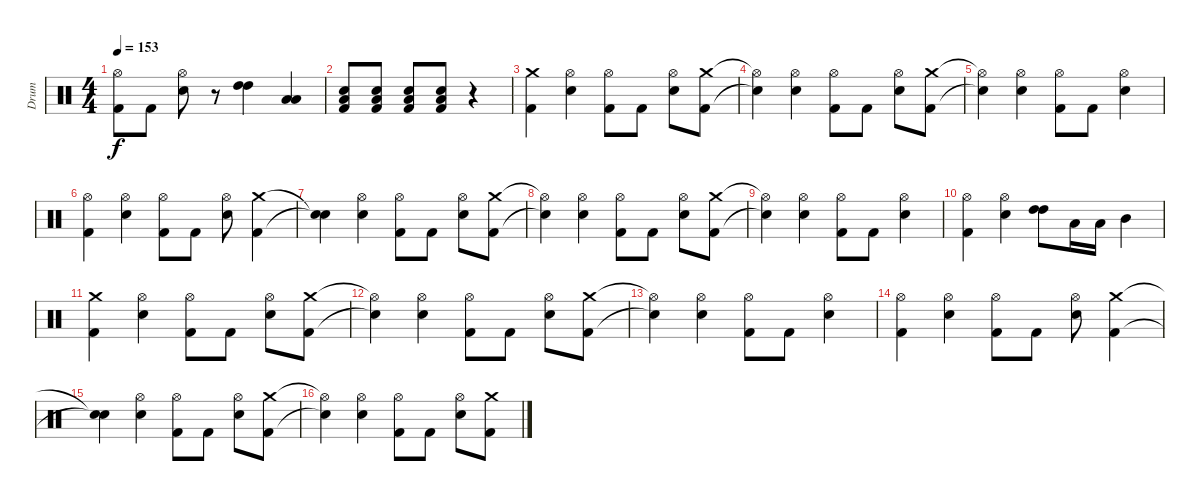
\track ("Drum" "Drum") {instrument percussion}
\staff {score}
\articulation defaults
\ts (4 4)
\tempo 153
\clef neutral
\ks c
("Hi-Hat (open)" "Kick (hit) 2").8{dy f} "Kick (hit) 2".8 ("Hi-Hat (open)" "Snare (hit) 2").8 r.8 ("High Tom (hit)" "High Tom (hit)").4{bd 480} ("Low Tom (hit)" "Low Tom (hit)").4{bd 480} |
("Snare (hit) 2" "Kick (hit) 2" "Low Floor Tom (hit)").8 ("Snare (hit) 2" "Kick (hit) 2" "Low Floor Tom (hit)").8 ("Snare (hit) 2" "Kick (hit) 2" "Low Floor Tom (hit)").8 ("Snare (hit) 2" "Kick (hit) 2" "Low Floor Tom (hit)").8 r.4 |
("Crash medium (hit)" "Kick (hit) 2").4 ("Hi-Hat (open)" "Snare (hit) 2").4 ("Hi-Hat (open)" "Kick (hit) 2").8 "Kick (hit) 2".8 ("Hi-Hat (open)" "Snare (hit) 2").8 ("Crash medium (hit)" "Kick (hit) 2").8 |
("Hi-Hat (open)"{t} "Snare (hit)"{t}).4 ("Hi-Hat (open)" "Snare (hit) 2").4 ("Hi-Hat (open)" "Kick (hit) 2").8 "Kick (hit) 2".8 ("Hi-Hat (open)" "Snare (hit) 2").8 ("Crash medium (hit)" "Kick (hit) 2").8 |
("Hi-Hat (open)"{t} "Snare (hit)"{t}).4 ("Hi-Hat (open)" "Snare (hit) 2").4 ("Hi-Hat (open)" "Kick (hit) 2").8 "Kick (hit) 2".8 ("Hi-Hat (open)" "Snare (hit) 2").4 |
("Hi-Hat (open)" "Kick (hit) 2").4 ("Hi-Hat (open)" "Snare (hit) 2").4 ("Hi-Hat (open)" "Kick (hit) 2").8 "Kick (hit) 2".8 ("Hi-Hat (open)" "Snare (hit) 2").8 ("Crash medium (hit)" "Kick (hit) 2").4 |
("Snare (hit)"{t} "Snare (hit)"{t}).4 ("Hi-Hat (open)" "Snare (hit) 2").4 ("Hi-Hat (open)" "Kick (hit) 2").8 "Kick (hit) 2".8 ("Hi-Hat (open)" "Snare (hit) 2").8 ("Crash medium (hit)" "Kick (hit) 2").8 |
("Hi-Hat (open)"{t} "Snare (hit)"{t}).4 ("Hi-Hat (open)" "Snare (hit) 2").4 ("Hi-Hat (open)" "Kick (hit) 2").8 "Kick (hit) 2".8 ("Hi-Hat (open)" "Snare (hit) 2").8 ("Crash medium (hit)" "Kick (hit) 2").8 |
("Hi-Hat (open)"{t} "Snare (hit)"{t}).4 ("Hi-Hat (open)" "Snare (hit) 2").4 ("Hi-Hat (open)" "Kick (hit) 2").8 "Kick (hit) 2".8 ("Hi-Hat (open)" "Snare (hit) 2").4 |
("Hi-Hat (open)" "Kick (hit) 2").4 ("Hi-Hat (open)" "Snare (hit) 2").4 ("High Tom (hit)" "High Tom (hit)").8{bd 480} "Low Tom (hit)".16 "Low Tom (hit)".16 "Mid Tom (hit)".4 |
("Crash medium (hit)" "Kick (hit) 2").4 ("Hi-Hat (open)" "Snare (hit) 2").4 ("Hi-Hat (open)" "Kick (hit) 2").8 "Kick (hit) 2".8 ("Hi-Hat (open)" "Snare (hit) 2").8 ("Crash medium (hit)" "Kick (hit) 2").8 |
("Hi-Hat (open)"{t} "Snare (hit)"{t}).4 ("Hi-Hat (open)" "Snare (hit) 2").4 ("Hi-Hat (open)" "Kick (hit) 2").8 "Kick (hit) 2".8 ("Hi-Hat (open)" "Snare (hit) 2").8 ("Crash medium (hit)" "Kick (hit) 2").8 |
("Hi-Hat (open)"{t} "Snare (hit)"{t}).4 ("Hi-Hat (open)" "Snare (hit) 2").4 ("Hi-Hat (open)" "Kick (hit) 2").8 "Kick (hit) 2".8 ("Hi-Hat (open)" "Snare (hit) 2").4 |
("Hi-Hat (open)" "Kick (hit) 2").4 ("Hi-Hat (open)" "Snare (hit) 2").4 ("Hi-Hat (open)" "Kick (hit) 2").8 "Kick (hit) 2".8 ("Hi-Hat (open)" "Snare (hit) 2").8 ("Crash medium (hit)" "Kick (hit) 2").4 |
("Snare (hit)"{t} "Snare (hit)"{t}).4 ("Hi-Hat (open)" "Snare (hit) 2").4 ("Hi-Hat (open)" "Kick (hit) 2").8 "Kick (hit) 2".8 ("Hi-Hat (open)" "Snare (hit) 2").8 ("Crash medium (hit)" "Kick (hit) 2").8 |
("Hi-Hat (open)"{t} "Snare (hit)"{t}).4 ("Hi-Hat (open)" "Snare (hit) 2").4 ("Hi-Hat (open)" "Kick (hit) 2").8 "Kick (hit) 2".8 ("Hi-Hat (open)" "Snare (hit) 2").8 ("Crash medium (hit)" "Kick (hit) 2").8
